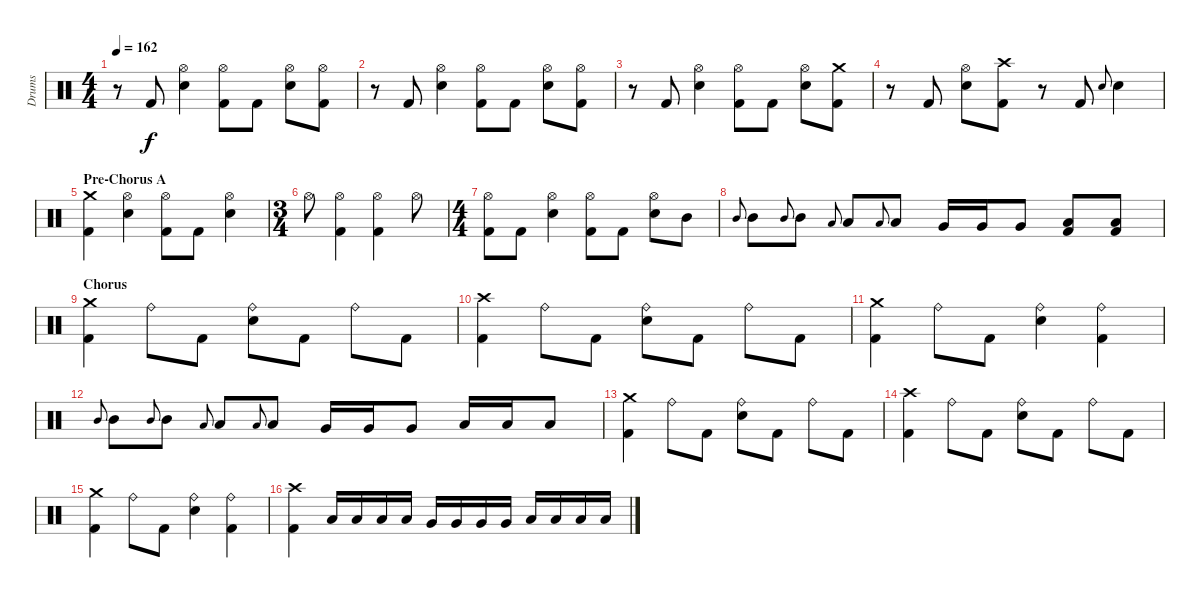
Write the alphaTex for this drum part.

\track ("Drums" "Drums") {instrument percussion}
\staff {score}
\articulation defaults
\ts (4 4)
\tempo 162
\clef neutral
\ks c
r.8{dy f} "Kick (hit) 2".8 ("Hi-Hat (open)" "Snare (hit) 2").4 ("Hi-Hat (open)" "Kick (hit) 2").8 "Kick (hit) 2".8 ("Hi-Hat (open)" "Snare (hit) 2").8 ("Hi-Hat (open)" "Kick (hit) 2").8 |
r.8 "Kick (hit) 2".8 ("Hi-Hat (open)" "Snare (hit) 2").4 ("Hi-Hat (open)" "Kick (hit) 2").8 "Kick (hit) 2".8 ("Hi-Hat (open)" "Snare (hit) 2").8 ("Hi-Hat (open)" "Kick (hit) 2").8 |
r.8 "Kick (hit) 2".8 ("Hi-Hat (open)" "Snare (hit) 2").4 ("Hi-Hat (open)" "Kick (hit) 2").8 "Kick (hit) 2".8 ("Hi-Hat (open)" "Snare (hit) 2").8 ("Crash medium (hit)" "Kick (hit) 2").8 |
r.8 "Kick (hit) 2".8 ("Hi-Hat (open)" "Snare (hit) 2").8 ("Crash high (hit)" "Kick (hit) 2").8 r.8 "Kick (hit) 2".8 "Snare (hit) 2".8{gr onbeat} "Snare (hit) 2".4 |
\section ("" "Pre-Chorus A")
("Crash medium (hit)" "Kick (hit) 2").4 ("Hi-Hat (open)" "Snare (hit) 2").4 ("Hi-Hat (open)" "Kick (hit) 2").8 "Kick (hit) 2".8 ("Hi-Hat (open)" "Snare (hit) 2").4 |
\ts (3 4)
"Hi-Hat (open)".8 ("Hi-Hat (open)" "Kick (hit) 2").4 ("Hi-Hat (open)" "Kick (hit) 2").4 "Hi-Hat (open)".8 |
\ts (4 4)
("Hi-Hat (open)" "Kick (hit) 2").8 "Kick (hit) 2".8 ("Hi-Hat (open)" "Snare (hit) 2").4 ("Hi-Hat (open)" "Kick (hit) 2").8 "Kick (hit) 2".8 ("Hi-Hat (open)" "Snare (hit) 2").8 "Mid Tom (hit)".8 |
"Mid Tom (hit)".8{gr onbeat} "Mid Tom (hit)".8 "Mid Tom (hit)".8{gr onbeat} "Mid Tom (hit)".8 "Low Tom (hit)".8{gr onbeat} "Low Tom (hit)".8 "Low Tom (hit)".8{gr onbeat} "Low Tom (hit)".8 "Very Low Tom (hit)".16 "Very Low Tom (hit)".16 "Very Low Tom (hit)".8 ("Low Floor Tom (hit)" "Kick (hit) 2").8 ("Low Floor Tom (hit)" "Kick (hit) 2").8 |
\section ("" "Chorus")
("Crash medium (hit)" "Kick (hit) 2").4 "Ride (bell)".8 "Kick (hit) 2".8 ("Ride (bell)" "Snare (hit) 2").8 "Kick (hit) 2".8 "Ride (bell)".8 "Kick (hit) 2".8 |
("Crash high (hit)" "Kick (hit) 2").4 "Ride (bell)".8 "Kick (hit) 2".8 ("Ride (bell)" "Snare (hit) 2").8 "Kick (hit) 2".8 "Ride (bell)".8 "Kick (hit) 2".8 |
("Crash medium (hit)" "Kick (hit) 2").4 "Ride (bell)".8 "Kick (hit) 2".8 ("Ride (bell)" "Snare (hit) 2").4 ("Ride (bell)" "Kick (hit) 2").4 |
"Mid Tom (hit)".8{gr onbeat} "Mid Tom (hit)".8 "Mid Tom (hit)".8{gr onbeat} "Mid Tom (hit)".8 "Low Tom (hit)".8{gr onbeat} "Low Tom (hit)".8 "Low Tom (hit)".8{gr onbeat} "Low Tom (hit)".8 "Very Low Tom (hit)".16 "Very Low Tom (hit)".16 "Very Low Tom (hit)".8 "Low Floor Tom (hit)".16 "Low Floor Tom (hit)".16 "Low Floor Tom (hit)".8 |
("Crash medium (hit)" "Kick (hit) 2").4 "Ride (bell)".8 "Kick (hit) 2".8 ("Ride (bell)" "Snare (hit) 2").8 "Kick (hit) 2".8 "Ride (bell)".8 "Kick (hit) 2".8 |
("Crash high (hit)" "Kick (hit) 2").4 "Ride (bell)".8 "Kick (hit) 2".8 ("Ride (bell)" "Snare (hit) 2").8 "Kick (hit) 2".8 "Ride (bell)".8 "Kick (hit) 2".8 |
("Crash medium (hit)" "Kick (hit) 2").4 "Ride (bell)".8 "Kick (hit) 2".8 ("Ride (bell)" "Snare (hit) 2").4 ("Ride (bell)" "Kick (hit) 2").4 |
("Crash high (hit)" "Kick (hit) 2").4 "Low Tom (hit)".16 "Low Tom (hit)".16 "Low Tom (hit)".16 "Low Tom (hit)".16 "Very Low Tom (hit)".16 "Very Low Tom (hit)".16 "Very Low Tom (hit)".16 "Very Low Tom (hit)".16 "Low Floor Tom (hit)".16 "Low Floor Tom (hit)".16 "Low Floor Tom (hit)".16 "Low Floor Tom (hit)".16
